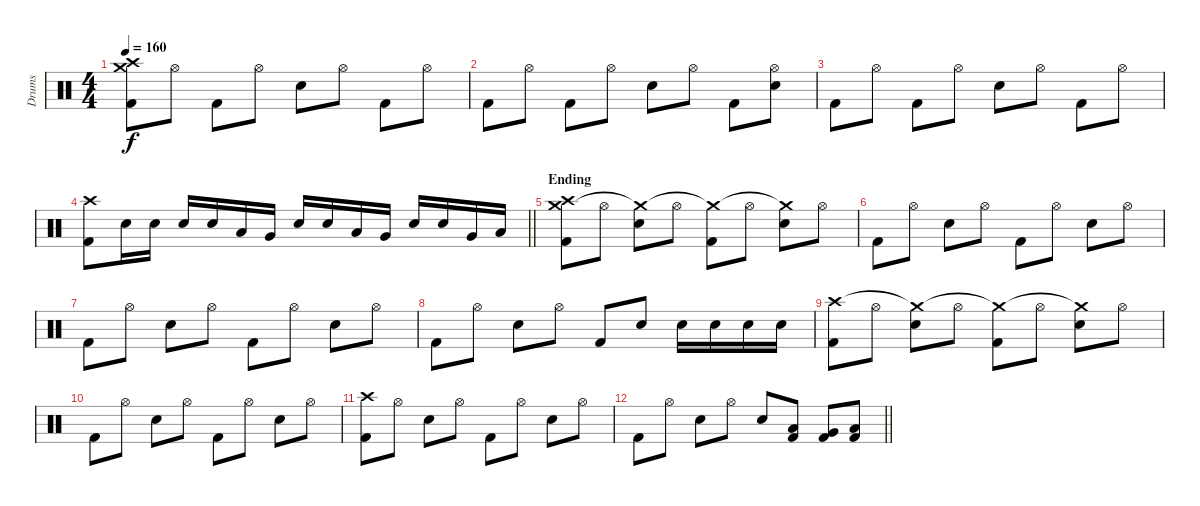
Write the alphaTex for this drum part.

\track ("Drums" "Drums") {instrument percussion}
\staff {score}
\articulation defaults
\ts (4 4)
\tempo 160
\clef neutral
\ks c
("Kick (hit) 2" "Crash medium (hit)" "Crash high (hit)").8{dy f} "Hi-Hat (open)".8 "Kick (hit) 2".8 "Hi-Hat (open)".8 "Electric Snare (hit)".8 "Hi-Hat (open)".8 "Kick (hit) 2".8 "Hi-Hat (open)".8 |
"Kick (hit) 2".8 "Hi-Hat (open)".8 "Kick (hit) 2".8 "Hi-Hat (open)".8 "Electric Snare (hit)".8 "Hi-Hat (open)".8 "Kick (hit) 2".8 ("Electric Snare (hit)" "Hi-Hat (open)").8 |
"Kick (hit) 2".8 "Hi-Hat (open)".8 "Kick (hit) 2".8 "Hi-Hat (open)".8 "Electric Snare (hit)".8 "Hi-Hat (open)".8 "Kick (hit) 2".8 "Hi-Hat (open)".8 |
\barLineRight lightlight
("Kick (hit) 2" "Crash high (hit)").8 "Electric Snare (hit)".16 "Electric Snare (hit)".16 "Electric Snare (hit)".16 "Electric Snare (hit)".16 "Low Tom (hit)".16 "Very Low Tom (hit)".16 "Electric Snare (hit)".16 "Electric Snare (hit)".16 "Low Tom (hit)".16 "Very Low Tom (hit)".16 "Electric Snare (hit)".16 "Electric Snare (hit)".16 "Very Low Tom (hit)".16 "Low Floor Tom (hit)".16 |
\section ("" "Ending")
("Kick (hit) 2" "Crash medium (hit)" "Crash high (hit)").8 "Hi-Hat (open)".8 ("Electric Snare (hit)" "Crash medium (hit)"{t}).8 "Hi-Hat (open)".8 ("Kick (hit) 2" "Crash medium (hit)"{t}).8 "Hi-Hat (open)".8 ("Electric Snare (hit)" "Crash medium (hit)"{t}).8 "Hi-Hat (open)".8 |
"Kick (hit) 2".8 "Hi-Hat (open)".8 "Electric Snare (hit)".8 "Hi-Hat (open)".8 "Kick (hit) 2".8 "Hi-Hat (open)".8 "Electric Snare (hit)".8 "Hi-Hat (open)".8 |
"Kick (hit) 2".8 "Hi-Hat (open)".8 "Electric Snare (hit)".8 "Hi-Hat (open)".8 "Kick (hit) 2".8 "Hi-Hat (open)".8 "Electric Snare (hit)".8 "Hi-Hat (open)".8 |
"Kick (hit) 2".8 "Hi-Hat (open)".8 "Electric Snare (hit)".8 "Hi-Hat (open)".8 "Kick (hit) 2".8 "Electric Snare (hit)".8 "Electric Snare (hit)".16 "Electric Snare (hit)".16 "Electric Snare (hit)".16 "Electric Snare (hit)".16 |
("Kick (hit) 2" "Crash high (hit)").8 "Hi-Hat (open)".8 ("Electric Snare (hit)" "Crash medium (hit)"{t}).8 "Hi-Hat (open)".8 ("Kick (hit) 2" "Crash medium (hit)"{t}).8 "Hi-Hat (open)".8 ("Electric Snare (hit)" "Crash medium (hit)"{t}).8 "Hi-Hat (open)".8 |
"Kick (hit) 2".8 "Hi-Hat (open)".8 "Electric Snare (hit)".8 "Hi-Hat (open)".8 "Kick (hit) 2".8 "Hi-Hat (open)".8 "Electric Snare (hit)".8 "Hi-Hat (open)".8 |
("Kick (hit) 2" "Crash high (hit)").8 "Hi-Hat (open)".8 "Electric Snare (hit)".8 "Hi-Hat (open)".8 "Kick (hit) 2".8 "Hi-Hat (open)".8 "Electric Snare (hit)".8 "Hi-Hat (open)".8 |
\barLineRight lightlight "Kick (hit) 2".8 "Hi-Hat (open)".8 "Electric Snare (hit)".8 "Hi-Hat (open)".8 "Electric Snare (hit)".8
("Low Tom (hit)" "Kick (hit) 2").8 ("Very Low Tom (hit)" "Kick (hit) 2").8 ("Low Floor Tom (hit)" "Kick (hit) 2").8
